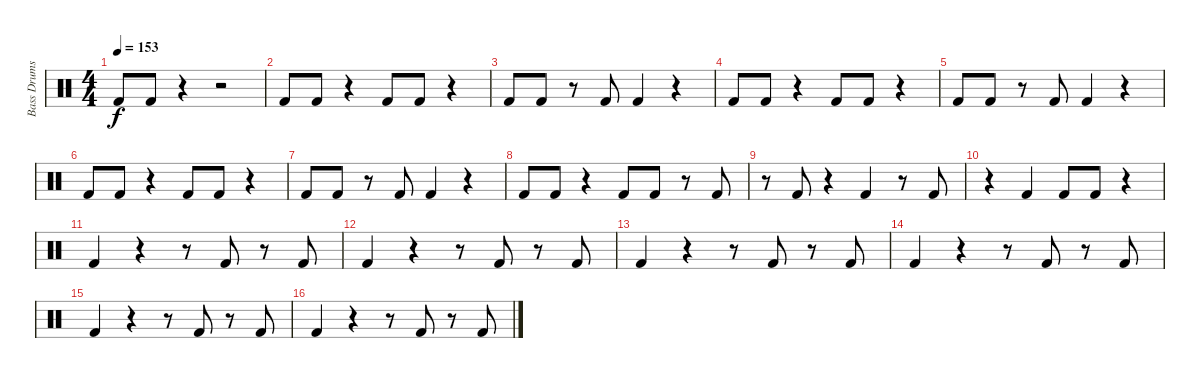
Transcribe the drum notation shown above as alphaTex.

\track ("Bass Drums" "Bass Drums") {instrument percussion}
\staff {score}
\articulation defaults
\ts (4 4)
\tempo 153
\clef neutral
\ks c "Kick (hit) 2".8{dy f} "Kick (hit) 2".8
r.4 r.2 |
"Kick (hit) 2".8 "Kick (hit) 2".8 r.4 "Kick (hit) 2".8 "Kick (hit) 2".8 r.4 |
"Kick (hit) 2".8 "Kick (hit) 2".8 r.8 "Kick (hit) 2".8 "Kick (hit) 2".4 r.4 |
"Kick (hit) 2".8 "Kick (hit) 2".8 r.4 "Kick (hit) 2".8 "Kick (hit) 2".8 r.4 |
"Kick (hit) 2".8 "Kick (hit) 2".8 r.8 "Kick (hit) 2".8 "Kick (hit) 2".4 r.4 |
"Kick (hit) 2".8 "Kick (hit) 2".8 r.4 "Kick (hit) 2".8 "Kick (hit) 2".8 r.4 |
"Kick (hit) 2".8 "Kick (hit) 2".8 r.8 "Kick (hit) 2".8 "Kick (hit) 2".4 r.4 |
"Kick (hit) 2".8 "Kick (hit) 2".8 r.4 "Kick (hit) 2".8 "Kick (hit) 2".8 r.8 "Kick (hit) 2".8 |
r.8 "Kick (hit) 2".8 r.4 "Kick (hit) 2".4 r.8 "Kick (hit) 2".8 |
r.4 "Kick (hit) 2".4 "Kick (hit) 2".8 "Kick (hit) 2".8 r.4 |
"Kick (hit) 2".4 r.4 r.8 "Kick (hit) 2".8 r.8 "Kick (hit) 2".8 |
"Kick (hit) 2".4 r.4 r.8 "Kick (hit) 2".8 r.8 "Kick (hit) 2".8 |
"Kick (hit) 2".4 r.4 r.8 "Kick (hit) 2".8 r.8 "Kick (hit) 2".8 |
"Kick (hit) 2".4 r.4 r.8 "Kick (hit) 2".8 r.8 "Kick (hit) 2".8 |
"Kick (hit) 2".4 r.4 r.8 "Kick (hit) 2".8 r.8 "Kick (hit) 2".8 |
"Kick (hit) 2".4 r.4 r.8 "Kick (hit) 2".8 r.8 "Kick (hit) 2".8
